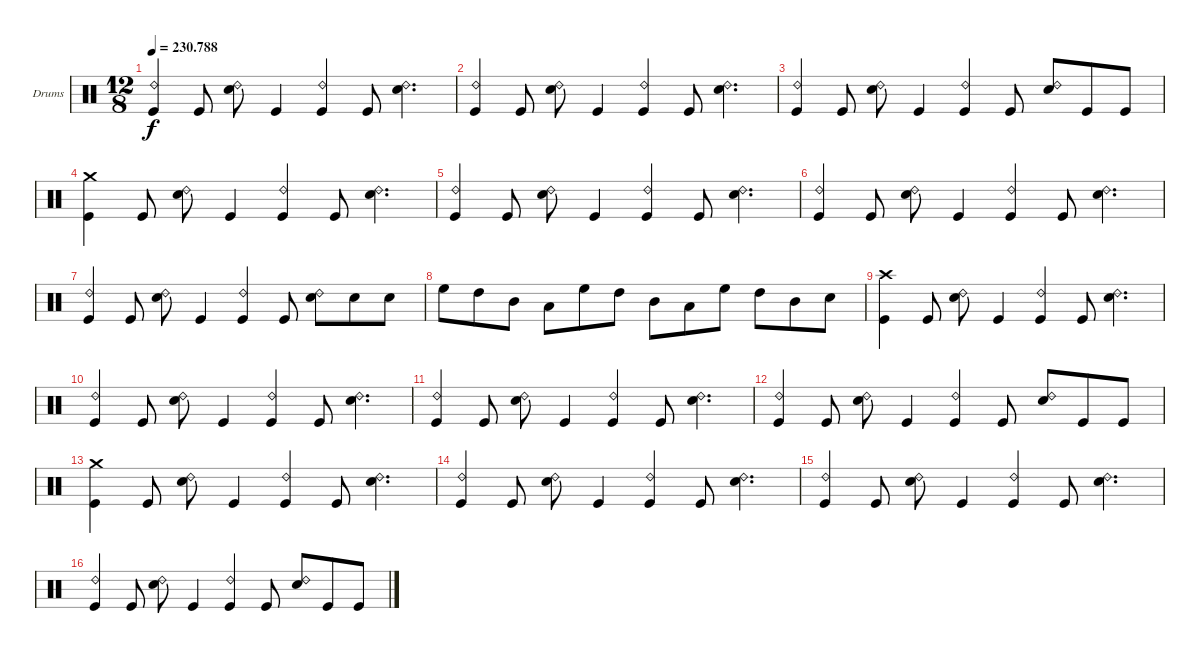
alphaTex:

\bracketExtendMode groupsimilarinstruments
\firstSystemTrackNameOrientation horizontal
\otherSystemsTrackNameOrientation horizontal
\track ("Ударные" "Drums") {instrument percussion}
\staff {score}
\articulation defaults
\ts (12 8)
\tempo
230.788
\accidentals auto
\clef neutral
\ottava regular
\simile none
\ks c
("Ride (bell) 2" "Kick (hit)").4{dy f} "Kick (hit)".8 ("Ride (bell) 2" "Snare (hit) 2").8 "Kick (hit)".4 ("Ride (bell) 2" "Kick (hit)").4 "Kick (hit)".8 ("Ride (bell) 2" "Snare (hit) 2").4{d} |
("Kick (hit)" "Ride (bell) 2").4 "Kick (hit)".8 ("Ride (bell) 2" "Snare (hit) 2").8 "Kick (hit)".4 ("Kick (hit)" "Ride (bell) 2").4 "Kick (hit)".8 ("Ride (bell) 2" "Snare (hit) 2").4{d} |
("Kick (hit)" "Ride (bell) 2").4 "Kick (hit)".8 ("Ride (bell) 2" "Snare (hit) 2").8 "Kick (hit)".4 ("Ride (bell) 2" "Kick (hit)").4 "Kick (hit)".8 ("Ride (bell) 2" "Snare (hit) 2").8 "Kick (hit)".8 "Kick (hit)".8 |
("Crash medium (hit)" "Kick (hit)").4 "Kick (hit)".8 ("Ride (bell) 2" "Snare (hit) 2").8 "Kick (hit)".4 ("Ride (bell) 2" "Kick (hit)").4 "Kick (hit)".8 ("Ride (bell) 2" "Snare (hit) 2").4{d} |
("Ride (bell) 2" "Kick (hit)").4 "Kick (hit)".8 ("Ride (bell) 2" "Snare (hit) 2").8 "Kick (hit)".4 ("Ride (bell) 2" "Kick (hit)").4 "Kick (hit)".8 ("Ride (bell) 2" "Snare (hit) 2").4{d} |
("Kick (hit)" "Ride (bell) 2").4 "Kick (hit)".8 ("Ride (bell) 2" "Snare (hit) 2").8 "Kick (hit)".4 ("Kick (hit)" "Ride (bell) 2").4 "Kick (hit)".8 ("Ride (bell) 2" "Snare (hit) 2").4{d} |
("Kick (hit)" "Ride (bell) 2").4 "Kick (hit)".8 ("Ride (bell) 2" "Snare (hit) 2").8 "Kick (hit)".4 ("Ride (bell) 2" "Kick (hit)").4 "Kick (hit)".8 ("Ride (bell) 2" "Snare (hit) 2").8 "Snare (hit) 2".8 "Snare (hit) 2".8 |
"High Floor Tom (hit)".8 "High Tom (hit)".8 "Mid Tom (hit)".8 "Low Tom (hit)".8 "High Floor Tom (hit)".8 "High Tom (hit)".8 "Mid Tom (hit)".8 "Low Tom (hit)".8 "High Floor Tom (hit)".8 "High Tom (hit)".8 "Mid Tom (hit)".8 "Snare (hit) 2".8 |
("Crash high (hit)" "Kick (hit)").4 "Kick (hit)".8 ("Ride (bell) 2" "Snare (hit) 2").8 "Kick (hit)".4 ("Ride (bell) 2" "Kick (hit)").4 "Kick (hit)".8 ("Ride (bell) 2" "Snare (hit) 2").4{d} |
("Ride (bell) 2" "Kick (hit)").4 "Kick (hit)".8 ("Ride (bell) 2" "Snare (hit) 2").8 "Kick (hit)".4 ("Ride (bell) 2" "Kick (hit)").4 "Kick (hit)".8 ("Ride (bell) 2" "Snare (hit) 2").4{d} |
("Kick (hit)" "Ride (bell) 2").4 "Kick (hit)".8 ("Ride (bell) 2" "Snare (hit) 2").8 "Kick (hit)".4 ("Kick (hit)" "Ride (bell) 2").4 "Kick (hit)".8 ("Ride (bell) 2" "Snare (hit) 2").4{d} |
("Kick (hit)" "Ride (bell) 2").4 "Kick (hit)".8 ("Ride (bell) 2" "Snare (hit) 2").8 "Kick (hit)".4 ("Ride (bell) 2" "Kick (hit)").4 "Kick (hit)".8 ("Ride (bell) 2" "Snare (hit) 2").8 "Kick (hit)".8 "Kick (hit)".8 |
("Crash medium (hit)" "Kick (hit)").4 "Kick (hit)".8 ("Ride (bell) 2" "Snare (hit) 2").8 "Kick (hit)".4 ("Ride (bell) 2" "Kick (hit)").4 "Kick (hit)".8 ("Ride (bell) 2" "Snare (hit) 2").4{d} |
("Ride (bell) 2" "Kick (hit)").4 "Kick (hit)".8 ("Ride (bell) 2" "Snare (hit) 2").8 "Kick (hit)".4 ("Ride (bell) 2" "Kick (hit)").4 "Kick (hit)".8 ("Ride (bell) 2" "Snare (hit) 2").4{d} |
("Kick (hit)" "Ride (bell) 2").4 "Kick (hit)".8 ("Ride (bell) 2" "Snare (hit) 2").8 "Kick (hit)".4 ("Kick (hit)" "Ride (bell) 2").4 "Kick (hit)".8 ("Ride (bell) 2" "Snare (hit) 2").4{d} |
("Kick (hit)" "Ride (bell) 2").4 "Kick (hit)".8 ("Ride (bell) 2" "Snare (hit) 2").8 "Kick (hit)".4 ("Ride (bell) 2" "Kick (hit)").4 "Kick (hit)".8 ("Ride (bell) 2" "Snare (hit) 2").8 "Kick (hit)".8 "Kick (hit)".8
